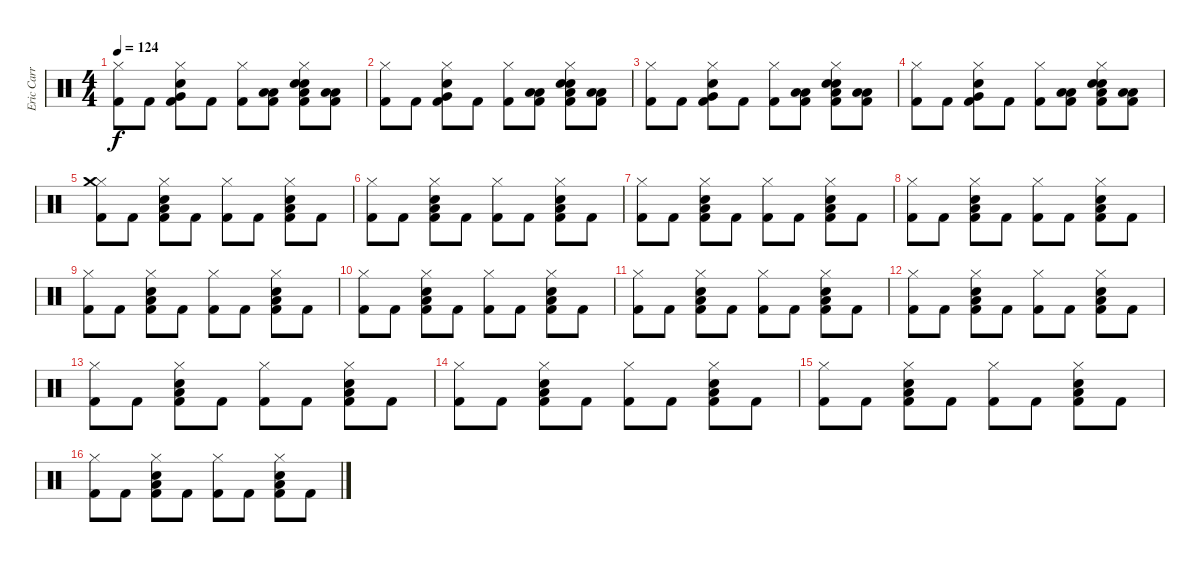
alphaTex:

\track ("Eric Carr" "Eric Carr") {instrument percussion}
\staff {score}
\articulation defaults
\ts (4 4)
\tempo 124
\clef neutral
\ks c
("Hi-Hat (closed)" "Kick (hit) 2").8{dy f} "Kick (hit) 2".8 ("Hi-Hat (closed)" "Very Low Tom (hit)" "Snare (hit) 2" "Kick (hit) 2").8 "Kick (hit) 2".8 ("Hi-Hat (closed)" "Kick (hit) 2").8 ("Low Tom (hit)" "Low Tom (hit)" "Kick (hit) 2").8 ("Hi-Hat (closed)" "Snare (hit) 2" "Low Floor Tom (hit)" "Snare (hit) 2" "Kick (hit) 2").8 ("Low Tom (hit)" "Low Tom (hit)" "Kick (hit) 2").8 |
("Hi-Hat (closed)" "Kick (hit) 2").8 "Kick (hit) 2".8 ("Hi-Hat (closed)" "Very Low Tom (hit)" "Snare (hit) 2" "Kick (hit) 2").8 "Kick (hit) 2".8 ("Hi-Hat (closed)" "Kick (hit) 2").8 ("Low Tom (hit)" "Low Tom (hit)" "Kick (hit) 2").8 ("Hi-Hat (closed)" "Snare (hit) 2" "Low Floor Tom (hit)" "Snare (hit) 2" "Kick (hit) 2").8 ("Low Tom (hit)" "Low Tom (hit)" "Kick (hit) 2").8 |
("Hi-Hat (closed)" "Kick (hit) 2").8 "Kick (hit) 2".8 ("Hi-Hat (closed)" "Very Low Tom (hit)" "Snare (hit) 2" "Kick (hit) 2").8 "Kick (hit) 2".8 ("Hi-Hat (closed)" "Kick (hit) 2").8 ("Low Tom (hit)" "Low Tom (hit)" "Kick (hit) 2").8 ("Hi-Hat (closed)" "Snare (hit) 2" "Low Floor Tom (hit)" "Snare (hit) 2" "Kick (hit) 2").8 ("Low Tom (hit)" "Low Tom (hit)" "Kick (hit) 2").8 |
("Hi-Hat (closed)" "Kick (hit) 2").8 "Kick (hit) 2".8 ("Hi-Hat (closed)" "Very Low Tom (hit)" "Snare (hit) 2" "Kick (hit) 2").8 "Kick (hit) 2".8 ("Hi-Hat (closed)" "Kick (hit) 2").8 ("Low Tom (hit)" "Low Tom (hit)" "Kick (hit) 2").8 ("Hi-Hat (closed)" "Snare (hit) 2" "Low Floor Tom (hit)" "Snare (hit) 2" "Kick (hit) 2").8 ("Low Tom (hit)" "Low Tom (hit)" "Kick (hit) 2").8 |
("Hi-Hat (closed)" "Crash medium (hit)" "Kick (hit) 2").8 "Kick (hit) 2".8 ("Hi-Hat (closed)" "Snare (hit) 2" "Low Floor Tom (hit)" "Kick (hit) 2").8 "Kick (hit) 2".8 ("Hi-Hat (closed)" "Kick (hit) 2").8 "Kick (hit) 2".8 ("Hi-Hat (closed)" "Snare (hit) 2" "Low Floor Tom (hit)" "Kick (hit) 2").8 "Kick (hit) 2".8 |
("Hi-Hat (closed)" "Kick (hit) 2").8 "Kick (hit) 2".8 ("Hi-Hat (closed)" "Snare (hit) 2" "Low Floor Tom (hit)" "Kick (hit) 2").8 "Kick (hit) 2".8 ("Hi-Hat (closed)" "Kick (hit) 2").8 "Kick (hit) 2".8 ("Hi-Hat (closed)" "Snare (hit) 2" "Low Floor Tom (hit)" "Kick (hit) 2").8 "Kick (hit) 2".8 |
("Hi-Hat (closed)" "Kick (hit) 2").8 "Kick (hit) 2".8 ("Hi-Hat (closed)" "Snare (hit) 2" "Low Floor Tom (hit)" "Kick (hit) 2").8 "Kick (hit) 2".8 ("Hi-Hat (closed)" "Kick (hit) 2").8 "Kick (hit) 2".8 ("Hi-Hat (closed)" "Snare (hit) 2" "Low Floor Tom (hit)" "Kick (hit) 2").8 "Kick (hit) 2".8 |
("Hi-Hat (closed)" "Kick (hit) 2").8 "Kick (hit) 2".8 ("Hi-Hat (closed)" "Snare (hit) 2" "Low Floor Tom (hit)" "Kick (hit) 2").8 "Kick (hit) 2".8 ("Hi-Hat (closed)" "Kick (hit) 2").8 "Kick (hit) 2".8 ("Hi-Hat (closed)" "Snare (hit) 2" "Low Floor Tom (hit)" "Kick (hit) 2").8 "Kick (hit) 2".8 |
("Hi-Hat (closed)" "Kick (hit) 2").8 "Kick (hit) 2".8 ("Hi-Hat (closed)" "Snare (hit) 2" "Low Floor Tom (hit)" "Kick (hit) 2").8 "Kick (hit) 2".8 ("Hi-Hat (closed)" "Kick (hit) 2").8 "Kick (hit) 2".8 ("Hi-Hat (closed)" "Snare (hit) 2" "Low Floor Tom (hit)" "Kick (hit) 2").8 "Kick (hit) 2".8 |
("Hi-Hat (closed)" "Kick (hit) 2").8 "Kick (hit) 2".8 ("Hi-Hat (closed)" "Snare (hit) 2" "Low Floor Tom (hit)" "Kick (hit) 2").8 "Kick (hit) 2".8 ("Hi-Hat (closed)" "Kick (hit) 2").8 "Kick (hit) 2".8 ("Hi-Hat (closed)" "Snare (hit) 2" "Low Floor Tom (hit)" "Kick (hit) 2").8 "Kick (hit) 2".8 |
("Hi-Hat (closed)" "Kick (hit) 2").8 "Kick (hit) 2".8 ("Hi-Hat (closed)" "Snare (hit) 2" "Low Floor Tom (hit)" "Kick (hit) 2").8 "Kick (hit) 2".8 ("Hi-Hat (closed)" "Kick (hit) 2").8 "Kick (hit) 2".8 ("Hi-Hat (closed)" "Snare (hit) 2" "Low Floor Tom (hit)" "Kick (hit) 2").8 "Kick (hit) 2".8 |
("Hi-Hat (closed)" "Kick (hit) 2").8 "Kick (hit) 2".8 ("Hi-Hat (closed)" "Snare (hit) 2" "Low Floor Tom (hit)" "Kick (hit) 2").8 "Kick (hit) 2".8 ("Hi-Hat (closed)" "Kick (hit) 2").8 "Kick (hit) 2".8 ("Hi-Hat (closed)" "Snare (hit) 2" "Low Floor Tom (hit)" "Kick (hit) 2").8 "Kick (hit) 2".8 |
("Hi-Hat (closed)" "Kick (hit) 2").8 "Kick (hit) 2".8 ("Hi-Hat (closed)" "Snare (hit) 2" "Low Floor Tom (hit)" "Kick (hit) 2").8 "Kick (hit) 2".8 ("Hi-Hat (closed)" "Kick (hit) 2").8 "Kick (hit) 2".8 ("Hi-Hat (closed)" "Snare (hit) 2" "Low Floor Tom (hit)" "Kick (hit) 2").8 "Kick (hit) 2".8 |
("Hi-Hat (closed)" "Kick (hit) 2").8 "Kick (hit) 2".8 ("Hi-Hat (closed)" "Snare (hit) 2" "Low Floor Tom (hit)" "Kick (hit) 2").8 "Kick (hit) 2".8 ("Hi-Hat (closed)" "Kick (hit) 2").8 "Kick (hit) 2".8 ("Hi-Hat (closed)" "Snare (hit) 2" "Low Floor Tom (hit)" "Kick (hit) 2").8 "Kick (hit) 2".8 |
("Hi-Hat (closed)" "Kick (hit) 2").8 "Kick (hit) 2".8 ("Hi-Hat (closed)" "Snare (hit) 2" "Low Floor Tom (hit)" "Kick (hit) 2").8 "Kick (hit) 2".8 ("Hi-Hat (closed)" "Kick (hit) 2").8 "Kick (hit) 2".8 ("Hi-Hat (closed)" "Snare (hit) 2" "Low Floor Tom (hit)" "Kick (hit) 2").8 "Kick (hit) 2".8 |
("Hi-Hat (closed)" "Kick (hit) 2").8 "Kick (hit) 2".8 ("Hi-Hat (closed)" "Snare (hit) 2" "Low Floor Tom (hit)" "Kick (hit) 2").8 "Kick (hit) 2".8 ("Hi-Hat (closed)" "Kick (hit) 2").8 "Kick (hit) 2".8 ("Hi-Hat (closed)" "Snare (hit) 2" "Low Floor Tom (hit)" "Kick (hit) 2").8 "Kick (hit) 2".8
